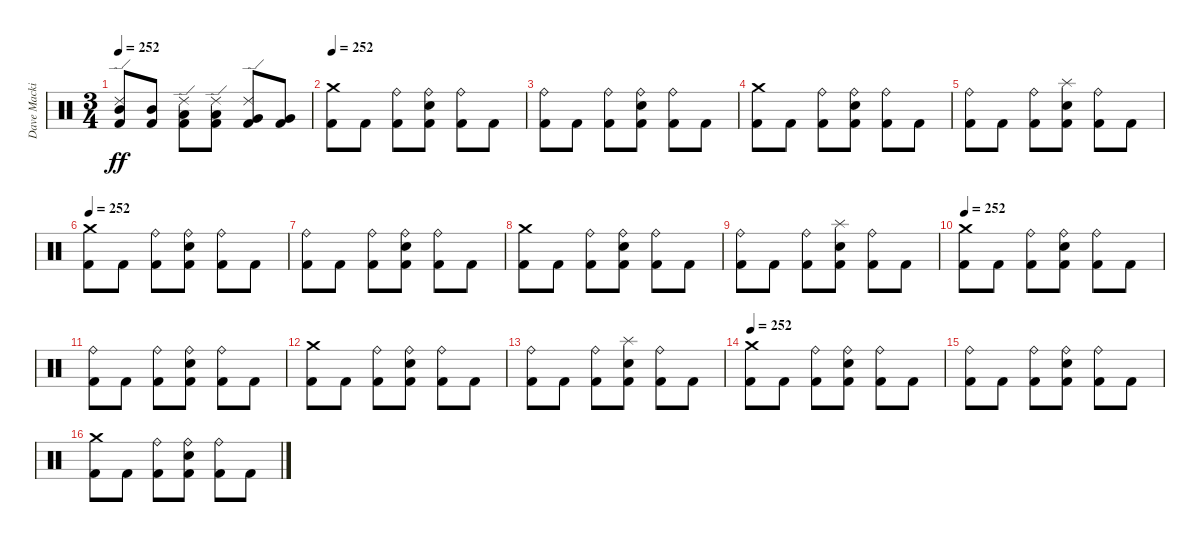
\track ("Dave Mackintosh" "Dave Macki") {instrument percussion}
\staff {score}
\articulation defaults
\ts (3 4)
\tempo 252
\clef neutral
\ks c
("Ride (edge) 2" "Mid Tom (hit)" "Kick (hit) 2").8{dy ff} ("Mid Tom (hit)" "Kick (hit) 2").8 ("Ride (edge) 2" "Low Tom (hit)" "Kick (hit) 2").8 ("Ride (edge) 2" "Low Tom (hit)" "Kick (hit) 2").8 ("Ride (edge) 2" "Very Low Tom (hit)" "Kick (hit) 2").8 ("Very Low Tom (hit)" "Kick (hit) 2").8 |
\tempo 252
("Crash medium (hit)" "Kick (hit) 2").8 "Kick (hit) 2".8 ("Ride (bell)" "Kick (hit) 2").8 ("Ride (bell)" "Electric Snare (hit)" "Kick (hit) 2").8 ("Ride (bell)" "Kick (hit) 2").8 "Kick (hit) 2".8 |
("Ride (bell)" "Kick (hit) 2").8 "Kick (hit) 2".8 ("Ride (bell)" "Kick (hit) 2").8 ("Ride (bell)" "Electric Snare (hit)" "Kick (hit) 2").8 ("Ride (bell)" "Kick (hit) 2").8 "Kick (hit) 2".8 |
("Crash medium (hit)" "Kick (hit) 2").8 "Kick (hit) 2".8 ("Ride (bell)" "Kick (hit) 2").8 ("Ride (bell)" "Electric Snare (hit)" "Kick (hit) 2").8 ("Ride (bell)" "Kick (hit) 2").8 "Kick (hit) 2".8 |
("Ride (bell)" "Kick (hit) 2").8 "Kick (hit) 2".8 ("Ride (bell)" "Kick (hit) 2").8 ("Splash (hit)" "Electric Snare (hit)" "Kick (hit) 2").8 ("Ride (bell)" "Kick (hit) 2").8 "Kick (hit) 2".8 |
\tempo 252
("Crash medium (hit)" "Kick (hit) 2").8 "Kick (hit) 2".8 ("Ride (bell)" "Kick (hit) 2").8 ("Ride (bell)" "Electric Snare (hit)" "Kick (hit) 2").8 ("Ride (bell)" "Kick (hit) 2").8 "Kick (hit) 2".8 |
("Ride (bell)" "Kick (hit) 2").8 "Kick (hit) 2".8 ("Ride (bell)" "Kick (hit) 2").8 ("Ride (bell)" "Electric Snare (hit)" "Kick (hit) 2").8 ("Ride (bell)" "Kick (hit) 2").8 "Kick (hit) 2".8 |
("Crash medium (hit)" "Kick (hit) 2").8 "Kick (hit) 2".8 ("Ride (bell)" "Kick (hit) 2").8 ("Ride (bell)" "Electric Snare (hit)" "Kick (hit) 2").8 ("Ride (bell)" "Kick (hit) 2").8 "Kick (hit) 2".8 |
("Ride (bell)" "Kick (hit) 2").8 "Kick (hit) 2".8 ("Ride (bell)" "Kick (hit) 2").8 ("Splash (hit)" "Electric Snare (hit)" "Kick (hit) 2").8 ("Ride (bell)" "Kick (hit) 2").8 "Kick (hit) 2".8 |
\tempo 252
("Crash medium (hit)" "Kick (hit) 2").8 "Kick (hit) 2".8 ("Ride (bell)" "Kick (hit) 2").8 ("Ride (bell)" "Electric Snare (hit)" "Kick (hit) 2").8 ("Ride (bell)" "Kick (hit) 2").8 "Kick (hit) 2".8 |
("Ride (bell)" "Kick (hit) 2").8 "Kick (hit) 2".8 ("Ride (bell)" "Kick (hit) 2").8 ("Ride (bell)" "Electric Snare (hit)" "Kick (hit) 2").8 ("Ride (bell)" "Kick (hit) 2").8 "Kick (hit) 2".8 |
("Crash medium (hit)" "Kick (hit) 2").8 "Kick (hit) 2".8 ("Ride (bell)" "Kick (hit) 2").8 ("Ride (bell)" "Electric Snare (hit)" "Kick (hit) 2").8 ("Ride (bell)" "Kick (hit) 2").8 "Kick (hit) 2".8 |
("Ride (bell)" "Kick (hit) 2").8 "Kick (hit) 2".8 ("Ride (bell)" "Kick (hit) 2").8 ("Splash (hit)" "Electric Snare (hit)" "Kick (hit) 2").8 ("Ride (bell)" "Kick (hit) 2").8 "Kick (hit) 2".8 |
\tempo 252
("Crash medium (hit)" "Kick (hit) 2").8 "Kick (hit) 2".8 ("Ride (bell)" "Kick (hit) 2").8 ("Ride (bell)" "Electric Snare (hit)" "Kick (hit) 2").8 ("Ride (bell)" "Kick (hit) 2").8 "Kick (hit) 2".8 |
("Ride (bell)" "Kick (hit) 2").8 "Kick (hit) 2".8 ("Ride (bell)" "Kick (hit) 2").8 ("Ride (bell)" "Electric Snare (hit)" "Kick (hit) 2").8 ("Ride (bell)" "Kick (hit) 2").8 "Kick (hit) 2".8 |
("Crash medium (hit)" "Kick (hit) 2").8 "Kick (hit) 2".8 ("Ride (bell)" "Kick (hit) 2").8 ("Ride (bell)" "Electric Snare (hit)" "Kick (hit) 2").8 ("Ride (bell)" "Kick (hit) 2").8 "Kick (hit) 2".8
